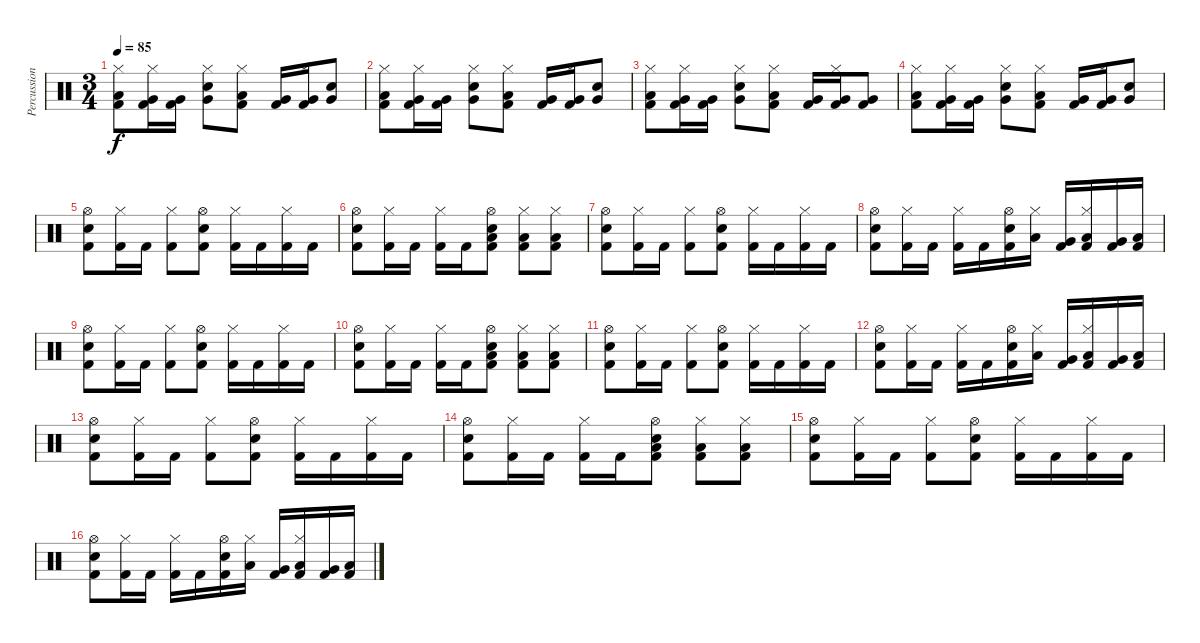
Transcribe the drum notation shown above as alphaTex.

\track ("Percussion" "Percussion") {instrument percussion}
\staff {score}
\articulation defaults
\ts (3 4)
\tempo 85
\clef neutral
\ks c
("Kick (hit) 2" "Low Tom (hit)" "Hi-Hat (closed)").8{dy f} ("Kick (hit) 2" "Very Low Tom (hit)" "Hi-Hat (closed)").16 ("Kick (hit) 2" "Very Low Tom (hit)").16 ("Snare (hit) 2" "Very Low Tom (hit)" "Hi-Hat (closed)").8 ("Kick (hit) 2" "Low Tom (hit)" "Hi-Hat (closed)").8 ("Kick (hit) 2" "Very Low Tom (hit)").16 ("Kick (hit) 2" "Very Low Tom (hit)" "Hi-Hat (closed)").16 ("Snare (hit) 2" "Very Low Tom (hit)").8 |
("Kick (hit) 2" "Low Tom (hit)" "Hi-Hat (closed)").8 ("Kick (hit) 2" "Very Low Tom (hit)" "Hi-Hat (closed)").16 ("Kick (hit) 2" "Very Low Tom (hit)").16 ("Snare (hit) 2" "Very Low Tom (hit)" "Hi-Hat (closed)").8 ("Kick (hit) 2" "Low Tom (hit)" "Hi-Hat (closed)").8 ("Kick (hit) 2" "Very Low Tom (hit)").16 ("Kick (hit) 2" "Very Low Tom (hit)" "Hi-Hat (closed)").16 ("Snare (hit) 2" "Very Low Tom (hit)").8 |
("Kick (hit) 2" "Low Tom (hit)" "Hi-Hat (closed)").8 ("Kick (hit) 2" "Very Low Tom (hit)" "Hi-Hat (closed)").16 ("Kick (hit) 2" "Very Low Tom (hit)").16 ("Snare (hit) 2" "Very Low Tom (hit)" "Hi-Hat (closed)").8 ("Kick (hit) 2" "Low Tom (hit)" "Hi-Hat (closed)").8 ("Kick (hit) 2" "Very Low Tom (hit)").16 ("Kick (hit) 2" "Very Low Tom (hit)" "Hi-Hat (closed)").16 ("Kick (hit) 2" "Very Low Tom (hit)").8 |
("Kick (hit) 2" "Low Tom (hit)" "Hi-Hat (closed)").8 ("Kick (hit) 2" "Very Low Tom (hit)" "Hi-Hat (closed)").16 ("Kick (hit) 2" "Very Low Tom (hit)").16 ("Snare (hit) 2" "Very Low Tom (hit)" "Hi-Hat (closed)").8 ("Kick (hit) 2" "Low Tom (hit)" "Hi-Hat (closed)").8 ("Kick (hit) 2" "Very Low Tom (hit)").16 ("Kick (hit) 2" "Very Low Tom (hit)" "Hi-Hat (closed)").16 ("Snare (hit) 2" "Very Low Tom (hit)").8 |
("Kick (hit) 2" "Snare (hit) 2" "Hi-Hat (open)").8 ("Kick (hit) 2" "Hi-Hat (closed)").16 "Kick (hit) 2".16 ("Kick (hit) 2" "Hi-Hat (closed)").8 ("Kick (hit) 2" "Snare (hit) 2" "Hi-Hat (open)").8 ("Kick (hit) 2" "Hi-Hat (closed)").16 "Kick (hit) 2".16 ("Kick (hit) 2" "Hi-Hat (closed)").16 "Kick (hit) 2".16 |
("Kick (hit) 2" "Snare (hit) 2" "Hi-Hat (open)").8 ("Kick (hit) 2" "Hi-Hat (closed)").16 "Kick (hit) 2".16 ("Kick (hit) 2" "Hi-Hat (closed)").16 "Kick (hit) 2".16 ("Kick (hit) 2" "Snare (hit) 2" "Hi-Hat (open)" "Low Tom (hit)").8 ("Kick (hit) 2" "Hi-Hat (closed)" "Low Tom (hit)").8 ("Kick (hit) 2" "Hi-Hat (closed)" "Low Tom (hit)").8 |
("Kick (hit) 2" "Snare (hit) 2" "Hi-Hat (open)").8 ("Kick (hit) 2" "Hi-Hat (closed)").16 "Kick (hit) 2".16 ("Kick (hit) 2" "Hi-Hat (closed)").8 ("Kick (hit) 2" "Snare (hit) 2" "Hi-Hat (open)").8 ("Kick (hit) 2" "Hi-Hat (closed)").16 "Kick (hit) 2".16 ("Kick (hit) 2" "Hi-Hat (closed)").16 "Kick (hit) 2".16 |
("Kick (hit) 2" "Snare (hit) 2" "Hi-Hat (open)").8 ("Kick (hit) 2" "Hi-Hat (closed)").16 "Kick (hit) 2".16 ("Kick (hit) 2" "Hi-Hat (closed)").16 "Kick (hit) 2".16 ("Kick (hit) 2" "Snare (hit) 2" "Hi-Hat (open)").16 ("Low Tom (hit)" "Hi-Hat (closed)").16 ("Kick (hit) 2" "Very Low Tom (hit)").16 ("Kick (hit) 2" "Low Floor Tom (hit)" "Hi-Hat (closed)").16 ("Kick (hit) 2" "Very Low Tom (hit)").16 ("Kick (hit) 2" "Low Tom (hit)").16 |
("Kick (hit) 2" "Snare (hit) 2" "Hi-Hat (open)").8 ("Kick (hit) 2" "Hi-Hat (closed)").16 "Kick (hit) 2".16 ("Kick (hit) 2" "Hi-Hat (closed)").8 ("Kick (hit) 2" "Snare (hit) 2" "Hi-Hat (open)").8 ("Kick (hit) 2" "Hi-Hat (closed)").16 "Kick (hit) 2".16 ("Kick (hit) 2" "Hi-Hat (closed)").16 "Kick (hit) 2".16 |
("Kick (hit) 2" "Snare (hit) 2" "Hi-Hat (open)").8 ("Kick (hit) 2" "Hi-Hat (closed)").16 "Kick (hit) 2".16 ("Kick (hit) 2" "Hi-Hat (closed)").16 "Kick (hit) 2".16 ("Kick (hit) 2" "Snare (hit) 2" "Hi-Hat (open)" "Low Tom (hit)").8 ("Kick (hit) 2" "Hi-Hat (closed)" "Low Tom (hit)").8 ("Kick (hit) 2" "Hi-Hat (closed)" "Low Tom (hit)").8 |
("Kick (hit) 2" "Snare (hit) 2" "Hi-Hat (open)").8 ("Kick (hit) 2" "Hi-Hat (closed)").16 "Kick (hit) 2".16 ("Kick (hit) 2" "Hi-Hat (closed)").8 ("Kick (hit) 2" "Snare (hit) 2" "Hi-Hat (open)").8 ("Kick (hit) 2" "Hi-Hat (closed)").16 "Kick (hit) 2".16 ("Kick (hit) 2" "Hi-Hat (closed)").16 "Kick (hit) 2".16 |
("Kick (hit) 2" "Snare (hit) 2" "Hi-Hat (open)").8 ("Kick (hit) 2" "Hi-Hat (closed)").16 "Kick (hit) 2".16 ("Kick (hit) 2" "Hi-Hat (closed)").16 "Kick (hit) 2".16 ("Kick (hit) 2" "Snare (hit) 2" "Hi-Hat (open)").16 ("Low Tom (hit)" "Hi-Hat (closed)").16 ("Kick (hit) 2" "Very Low Tom (hit)").16 ("Kick (hit) 2" "Low Floor Tom (hit)" "Hi-Hat (closed)").16 ("Kick (hit) 2" "Very Low Tom (hit)").16 ("Kick (hit) 2" "Low Tom (hit)").16 |
("Kick (hit) 2" "Snare (hit) 2" "Hi-Hat (open)").8 ("Kick (hit) 2" "Hi-Hat (closed)").16 "Kick (hit) 2".16 ("Kick (hit) 2" "Hi-Hat (closed)").8 ("Kick (hit) 2" "Snare (hit) 2" "Hi-Hat (open)").8 ("Kick (hit) 2" "Hi-Hat (closed)").16 "Kick (hit) 2".16 ("Kick (hit) 2" "Hi-Hat (closed)").16 "Kick (hit) 2".16 |
("Kick (hit) 2" "Snare (hit) 2" "Hi-Hat (open)").8 ("Kick (hit) 2" "Hi-Hat (closed)").16 "Kick (hit) 2".16 ("Kick (hit) 2" "Hi-Hat (closed)").16 "Kick (hit) 2".16 ("Kick (hit) 2" "Snare (hit) 2" "Hi-Hat (open)" "Low Tom (hit)").8 ("Kick (hit) 2" "Hi-Hat (closed)" "Low Tom (hit)").8 ("Kick (hit) 2" "Hi-Hat (closed)" "Low Tom (hit)").8 |
("Kick (hit) 2" "Snare (hit) 2" "Hi-Hat (open)").8 ("Kick (hit) 2" "Hi-Hat (closed)").16 "Kick (hit) 2".16 ("Kick (hit) 2" "Hi-Hat (closed)").8 ("Kick (hit) 2" "Snare (hit) 2" "Hi-Hat (open)").8 ("Kick (hit) 2" "Hi-Hat (closed)").16 "Kick (hit) 2".16 ("Kick (hit) 2" "Hi-Hat (closed)").16 "Kick (hit) 2".16 |
("Kick (hit) 2" "Snare (hit) 2" "Hi-Hat (open)").8 ("Kick (hit) 2" "Hi-Hat (closed)").16 "Kick (hit) 2".16 ("Kick (hit) 2" "Hi-Hat (closed)").16 "Kick (hit) 2".16 ("Kick (hit) 2" "Snare (hit) 2" "Hi-Hat (open)").16 ("Low Tom (hit)" "Hi-Hat (closed)").16 ("Kick (hit) 2" "Very Low Tom (hit)").16 ("Kick (hit) 2" "Low Floor Tom (hit)" "Hi-Hat (closed)").16 ("Kick (hit) 2" "Very Low Tom (hit)").16 ("Kick (hit) 2" "Low Tom (hit)").16
